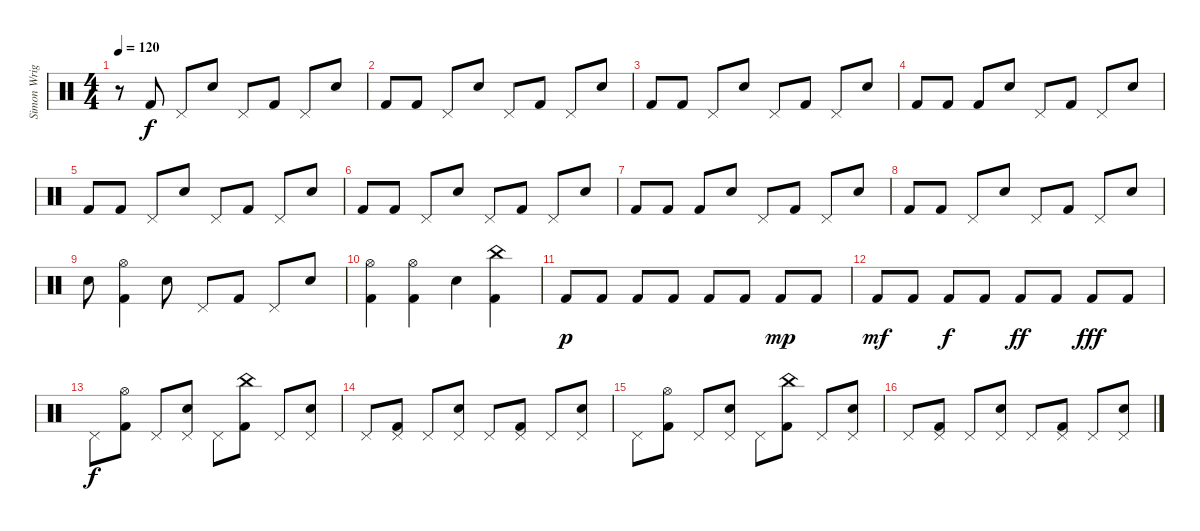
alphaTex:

\track ("Simon Wright (i think)" "Simon Wrig") {instrument percussion}
\staff {score}
\articulation defaults
\ts (4 4)
\tempo 120
\clef neutral
\ks c
r.8{dy f} "Kick (hit) 2".8 "Pedal Hi-Hat (hit)".8 "Snare (hit) 2".8 "Pedal Hi-Hat (hit)".8 "Kick (hit) 2".8 "Pedal Hi-Hat (hit)".8 "Snare (hit) 2".8 |
"Kick (hit) 2".8 "Kick (hit) 2".8 "Pedal Hi-Hat (hit)".8 "Snare (hit) 2".8 "Pedal Hi-Hat (hit)".8 "Kick (hit) 2".8 "Pedal Hi-Hat (hit)".8 "Snare (hit) 2".8 |
"Kick (hit) 2".8 "Kick (hit) 2".8 "Pedal Hi-Hat (hit)".8 "Snare (hit) 2".8 "Pedal Hi-Hat (hit)".8 "Kick (hit) 2".8 "Pedal Hi-Hat (hit)".8 "Snare (hit) 2".8 |
"Kick (hit) 2".8 "Kick (hit) 2".8 "Kick (hit) 2".8 "Snare (hit) 2".8 "Pedal Hi-Hat (hit)".8 "Kick (hit) 2".8 "Pedal Hi-Hat (hit)".8 "Snare (hit) 2".8 |
"Kick (hit) 2".8 "Kick (hit) 2".8 "Pedal Hi-Hat (hit)".8 "Snare (hit) 2".8 "Pedal Hi-Hat (hit)".8 "Kick (hit) 2".8 "Pedal Hi-Hat (hit)".8 "Snare (hit) 2".8 |
"Kick (hit) 2".8 "Kick (hit) 2".8 "Pedal Hi-Hat (hit)".8 "Snare (hit) 2".8 "Pedal Hi-Hat (hit)".8 "Kick (hit) 2".8 "Pedal Hi-Hat (hit)".8 "Snare (hit) 2".8 |
"Kick (hit) 2".8 "Kick (hit) 2".8 "Kick (hit) 2".8 "Snare (hit) 2".8 "Pedal Hi-Hat (hit)".8 "Kick (hit) 2".8 "Pedal Hi-Hat (hit)".8 "Snare (hit) 2".8 |
"Kick (hit) 2".8 "Kick (hit) 2".8 "Pedal Hi-Hat (hit)".8 "Snare (hit) 2".8 "Pedal Hi-Hat (hit)".8 "Kick (hit) 2".8 "Pedal Hi-Hat (hit)".8 "Snare (hit) 2".8 |
"Snare (hit) 2".8 ("Kick (hit) 2" "Hi-Hat (open)").4 "Snare (hit) 2".8 "Pedal Hi-Hat (hit)".8 "Kick (hit) 2".8 "Pedal Hi-Hat (hit)".8 "Snare (hit) 2".8 |
("Kick (hit) 2" "Hi-Hat (open)").4 ("Kick (hit) 2" "Hi-Hat (open)").4 "Snare (hit) 2".4 ("Kick (hit) 2" "China (hit)").4 |
"Kick (hit) 2".8{dy p} "Kick (hit) 2".8 "Kick (hit) 2".8 "Kick (hit) 2".8 "Kick (hit) 2".8 "Kick (hit) 2".8 "Kick (hit) 2".8{dy mp} "Kick (hit) 2".8 |
"Kick (hit) 2".8{dy mf} "Kick (hit) 2".8 "Kick (hit) 2".8{dy f} "Kick (hit) 2".8 "Kick (hit) 2".8{dy ff} "Kick (hit) 2".8 "Kick (hit) 2".8{dy fff} "Kick (hit) 2".8 |
"Pedal Hi-Hat (hit)".8{dy f} ("Kick (hit) 2" "Hi-Hat (open)").8 "Pedal Hi-Hat (hit)".8 ("Snare (hit) 2" "Pedal Hi-Hat (hit)").8 "Pedal Hi-Hat (hit)".8 ("Kick (hit) 2" "China (hit)").8 "Pedal Hi-Hat (hit)".8 ("Snare (hit) 2" "Pedal Hi-Hat (hit)").8 |
"Pedal Hi-Hat (hit)".8 ("Kick (hit) 2" "Pedal Hi-Hat (hit)").8 "Pedal Hi-Hat (hit)".8 ("Snare (hit) 2" "Pedal Hi-Hat (hit)").8 "Pedal Hi-Hat (hit)".8 ("Kick (hit) 2" "Pedal Hi-Hat (hit)").8 "Pedal Hi-Hat (hit)".8 ("Snare (hit) 2" "Pedal Hi-Hat (hit)").8 |
"Pedal Hi-Hat (hit)".8 ("Kick (hit) 2" "Hi-Hat (open)").8 "Pedal Hi-Hat (hit)".8 ("Snare (hit) 2" "Pedal Hi-Hat (hit)").8 "Pedal Hi-Hat (hit)".8 ("Kick (hit) 2" "China (hit)").8 "Pedal Hi-Hat (hit)".8 ("Snare (hit) 2" "Pedal Hi-Hat (hit)").8 |
"Pedal Hi-Hat (hit)".8 ("Kick (hit) 2" "Pedal Hi-Hat (hit)").8 "Pedal Hi-Hat (hit)".8 ("Snare (hit) 2" "Pedal Hi-Hat (hit)").8 "Pedal Hi-Hat (hit)".8 ("Kick (hit) 2" "Pedal Hi-Hat (hit)").8 "Pedal Hi-Hat (hit)".8 ("Snare (hit) 2" "Pedal Hi-Hat (hit)").8
